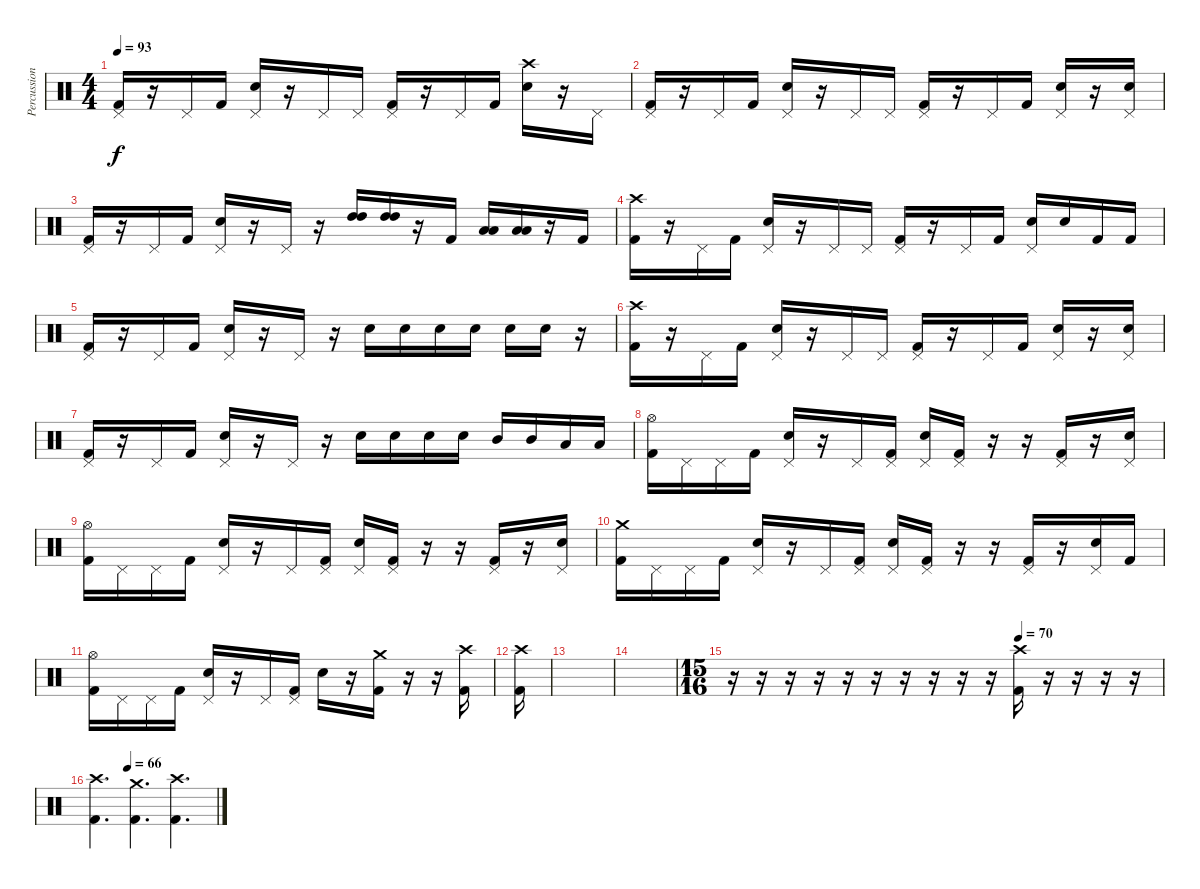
\track ("Percussion" "Percussion") {instrument percussion}
\staff {score}
\articulation defaults
\ts (4 4)
\tempo 93
\clef neutral
\ks c
("Pedal Hi-Hat (hit)" "Kick (hit) 2").16{dy f} r.16 "Pedal Hi-Hat (hit)".16 "Kick (hit) 2".16 ("Pedal Hi-Hat (hit)" "Snare (hit) 2").16 r.16 "Pedal Hi-Hat (hit)".16 "Pedal Hi-Hat (hit)".16 ("Pedal Hi-Hat (hit)" "Kick (hit) 2").16 r.16 "Pedal Hi-Hat (hit)".16 "Kick (hit) 2".16 ("Crash high (hit)" "Snare (hit) 2").16 r.16 "Pedal Hi-Hat (hit)".16 |
("Pedal Hi-Hat (hit)" "Kick (hit) 2").16 r.16 "Pedal Hi-Hat (hit)".16 "Kick (hit) 2".16 ("Pedal Hi-Hat (hit)" "Snare (hit) 2").16 r.16 "Pedal Hi-Hat (hit)".16 "Pedal Hi-Hat (hit)".16 ("Pedal Hi-Hat (hit)" "Kick (hit) 2").16 r.16 "Pedal Hi-Hat (hit)".16 "Kick (hit) 2".16 ("Pedal Hi-Hat (hit)" "Snare (hit) 2").16 r.16 ("Pedal Hi-Hat (hit)" "Snare (hit) 2").16 |
("Pedal Hi-Hat (hit)" "Kick (hit) 2").16 r.16 "Pedal Hi-Hat (hit)".16 "Kick (hit) 2".16 ("Pedal Hi-Hat (hit)" "Snare (hit) 2").16 r.16 "Pedal Hi-Hat (hit)".16 r.16 ("High Tom (hit)" "High Tom (hit)").16 ("High Tom (hit)" "High Tom (hit)").16 r.16 "Kick (hit) 2".16 ("Low Tom (hit)" "Low Tom (hit)").16 ("Low Tom (hit)" "Low Tom (hit)").16 r.16 "Kick (hit) 2".16 |
("Crash high (hit)" "Kick (hit) 2").16 r.16 "Pedal Hi-Hat (hit)".16 "Kick (hit) 2".16 ("Pedal Hi-Hat (hit)" "Snare (hit) 2").16 r.16 "Pedal Hi-Hat (hit)".16 "Pedal Hi-Hat (hit)".16 ("Pedal Hi-Hat (hit)" "Kick (hit) 2").16 r.16 "Pedal Hi-Hat (hit)".16 "Kick (hit) 2".16 ("Pedal Hi-Hat (hit)" "Snare (hit) 2").16 "Snare (hit) 2".16 "Kick (hit) 2".16 "Kick (hit) 2".16 |
("Pedal Hi-Hat (hit)" "Kick (hit) 2").16 r.16 "Pedal Hi-Hat (hit)".16 "Kick (hit) 2".16 ("Pedal Hi-Hat (hit)" "Snare (hit) 2").16 r.16 "Pedal Hi-Hat (hit)".16 r.16 "Snare (hit) 2".16 "Snare (hit) 2".16 "Snare (hit) 2".16 "Snare (hit) 2".16 "Snare (hit) 2".16 "Snare (hit) 2".16 r.16 |
("Crash high (hit)" "Kick (hit) 2").16 r.16 "Pedal Hi-Hat (hit)".16 "Kick (hit) 2".16 ("Pedal Hi-Hat (hit)" "Snare (hit) 2").16 r.16 "Pedal Hi-Hat (hit)".16 "Pedal Hi-Hat (hit)".16 ("Pedal Hi-Hat (hit)" "Kick (hit) 2").16 r.16 "Pedal Hi-Hat (hit)".16 "Kick (hit) 2".16 ("Pedal Hi-Hat (hit)" "Snare (hit) 2").16 r.16 ("Pedal Hi-Hat (hit)" "Snare (hit) 2").16 |
("Pedal Hi-Hat (hit)" "Kick (hit) 2").16 r.16 "Pedal Hi-Hat (hit)".16 "Kick (hit) 2".16 ("Pedal Hi-Hat (hit)" "Snare (hit) 2").16 r.16 "Pedal Hi-Hat (hit)".16 r.16 "Snare (hit) 2".16 "Snare (hit) 2".16 "Snare (hit) 2".16 "Snare (hit) 2".16 "Mid Tom (hit)".16 "Mid Tom (hit)".16 "Low Tom (hit)".16 "Low Tom (hit)".16 |
("Hi-Hat (open)" "Kick (hit) 2").16 "Pedal Hi-Hat (hit)".16 "Pedal Hi-Hat (hit)".16 "Kick (hit) 2".16 ("Pedal Hi-Hat (hit)" "Snare (hit) 2").16 r.16 "Pedal Hi-Hat (hit)".16 ("Pedal Hi-Hat (hit)" "Kick (hit) 2").16 ("Pedal Hi-Hat (hit)" "Snare (hit) 2").16 ("Pedal Hi-Hat (hit)" "Kick (hit) 2").16 r.16 r.16 ("Pedal Hi-Hat (hit)" "Kick (hit) 2").16 r.16 ("Pedal Hi-Hat (hit)" "Snare (hit) 2").16 |
("Hi-Hat (open)" "Kick (hit) 2").16 "Pedal Hi-Hat (hit)".16 "Pedal Hi-Hat (hit)".16 "Kick (hit) 2".16 ("Pedal Hi-Hat (hit)" "Snare (hit) 2").16 r.16 "Pedal Hi-Hat (hit)".16 ("Pedal Hi-Hat (hit)" "Kick (hit) 2").16 ("Pedal Hi-Hat (hit)" "Snare (hit) 2").16 ("Pedal Hi-Hat (hit)" "Kick (hit) 2").16 r.16 r.16 ("Pedal Hi-Hat (hit)" "Kick (hit) 2").16 r.16 ("Pedal Hi-Hat (hit)" "Snare (hit) 2").16 |
("Crash medium (hit)" "Kick (hit) 2").16 "Pedal Hi-Hat (hit)".16 "Pedal Hi-Hat (hit)".16 "Kick (hit) 2".16 ("Pedal Hi-Hat (hit)" "Snare (hit) 2").16 r.16 "Pedal Hi-Hat (hit)".16 ("Pedal Hi-Hat (hit)" "Kick (hit) 2").16 ("Pedal Hi-Hat (hit)" "Snare (hit) 2").16 ("Pedal Hi-Hat (hit)" "Kick (hit) 2").16 r.16 r.16 ("Pedal Hi-Hat (hit)" "Kick (hit) 2").16 r.16 ("Pedal Hi-Hat (hit)" "Snare (hit) 2").16 "Kick (hit) 2".16 |
("Hi-Hat (open)" "Kick (hit) 2").16 "Pedal Hi-Hat (hit)".16 "Pedal Hi-Hat (hit)".16 "Kick (hit) 2".16 ("Pedal Hi-Hat (hit)" "Snare (hit) 2").16 r.16 "Pedal Hi-Hat (hit)".16 ("Pedal Hi-Hat (hit)" "Kick (hit) 2").16 "Snare (hit) 2".16 r.16 ("Crash medium (hit)" "Kick (hit) 2").16 r.16 r.16 ("Crash high (hit)" "Kick (hit) 2").16 |
("Crash high (hit)" "Kick (hit) 2").16 |
|
|
\ts (15 16)
\tempo (78 0.6666666666666666)
\tempo (70 0.6666666666666666)
r.16 r.16 r.16 r.16 r.16 r.16 r.16 r.16 r.16 r.16 ("Kick (hit) 2" "Crash high (hit)").16 r.16 r.16 r.16 r.16 |
\tempo (66 0.26666666666666666)
("Crash high (hit)" "Kick (hit) 2").4{d} ("Crash medium (hit)" "Kick (hit) 2").4{d} ("Crash high (hit)" "Kick (hit) 2").4{d}
